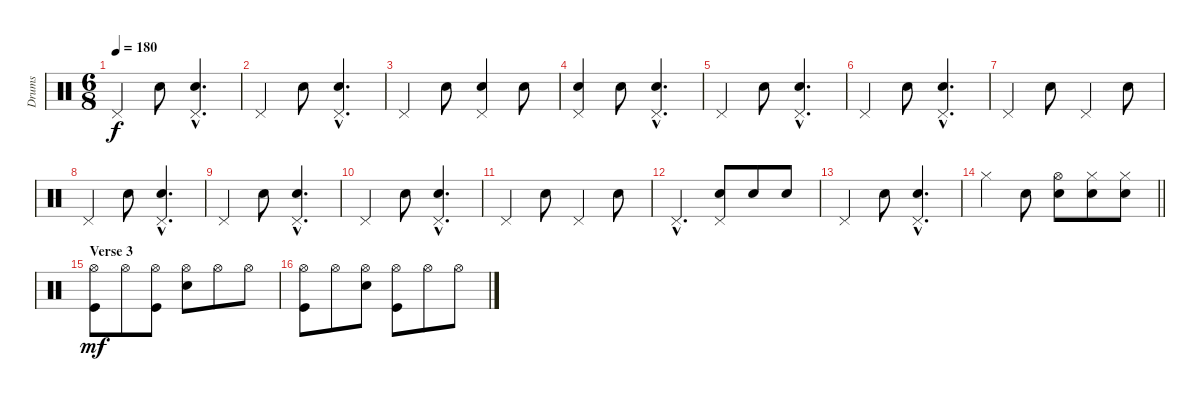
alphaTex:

\track ("Drums" "Drums") {instrument percussion}
\staff {score}
\articulation defaults
\ts (6 8)
\tempo 180
\clef neutral
\ks c "Pedal Hi-Hat (hit)".4{dy f} "Electric Snare (hit)".8
("Pedal Hi-Hat (hit)"{hac} "Electric Snare (hit)"{hac}).4{d} |
"Pedal Hi-Hat (hit)".4 "Electric Snare (hit)".8 ("Pedal Hi-Hat (hit)"{hac} "Electric Snare (hit)"{hac}).4{d} |
"Pedal Hi-Hat (hit)".4 "Electric Snare (hit)".8 ("Pedal Hi-Hat (hit)" "Electric Snare (hit)").4 "Electric Snare (hit)".8 |
("Pedal Hi-Hat (hit)" "Electric Snare (hit)").4 "Electric Snare (hit)".8 ("Pedal Hi-Hat (hit)"{hac} "Electric Snare (hit)"{hac}).4{d} |
"Pedal Hi-Hat (hit)".4 "Electric Snare (hit)".8 ("Pedal Hi-Hat (hit)"{hac} "Electric Snare (hit)"{hac}).4{d} |
"Pedal Hi-Hat (hit)".4 "Electric Snare (hit)".8 ("Pedal Hi-Hat (hit)"{hac} "Electric Snare (hit)"{hac}).4{d} |
"Pedal Hi-Hat (hit)".4 "Electric Snare (hit)".8 "Pedal Hi-Hat (hit)".4 "Electric Snare (hit)".8 |
"Pedal Hi-Hat (hit)".4 "Electric Snare (hit)".8 ("Pedal Hi-Hat (hit)"{hac} "Electric Snare (hit)"{hac}).4{d} |
"Pedal Hi-Hat (hit)".4 "Electric Snare (hit)".8 ("Pedal Hi-Hat (hit)"{hac} "Electric Snare (hit)"{hac}).4{d} |
"Pedal Hi-Hat (hit)".4 "Electric Snare (hit)".8 ("Pedal Hi-Hat (hit)"{hac} "Electric Snare (hit)"{hac}).4{d} |
"Pedal Hi-Hat (hit)".4 "Electric Snare (hit)".8 "Pedal Hi-Hat (hit)".4 "Electric Snare (hit)".8 |
"Pedal Hi-Hat (hit)"{hac}.4{d} ("Pedal Hi-Hat (hit)" "Electric Snare (hit)").8 "Electric Snare (hit)".8 "Electric Snare (hit)".8 |
"Pedal Hi-Hat (hit)".4 "Electric Snare (hit)".8 ("Pedal Hi-Hat (hit)"{hac} "Electric Snare (hit)"{hac}).4{d} |
\barLineRight lightlight "Hi-Hat (closed)".4 "Electric Snare (hit)".8
("Hi-Hat (open)" "Electric Snare (hit)").8 ("Hi-Hat (closed)" "Electric Snare (hit)").8 ("Hi-Hat (closed)" "Electric Snare (hit)").8 |
\section ("" "Verse 3")
("Hi-Hat (open)" "Kick (hit)").8{dy mf} "Hi-Hat (open)".8 ("Hi-Hat (open)" "Kick (hit)").8 ("Hi-Hat (open)" "Electric Snare (hit)").8 "Hi-Hat (open)".8 "Hi-Hat (open)".8 |
("Hi-Hat (open)" "Kick (hit)").8 "Hi-Hat (open)".8 ("Hi-Hat (open)" "Electric Snare (hit)").8 ("Hi-Hat (open)" "Kick (hit)").8 "Hi-Hat (open)".8 "Hi-Hat (open)".8
